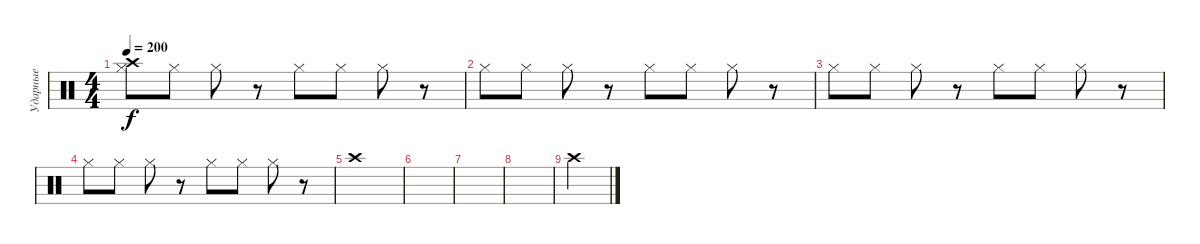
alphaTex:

\track ("Ударные" "Ударные") {instrument percussion}
\staff {score}
\articulation defaults
\ts (4 4)
\tempo 200
\clef neutral
\ks c
("Hi-Hat (closed)" "Crash high (hit)").8{dy f} "Hi-Hat (closed)".8 "Hi-Hat (closed)".8 r.8 "Hi-Hat (closed)".8 "Hi-Hat (closed)".8 "Hi-Hat (closed)".8 r.8 |
"Hi-Hat (closed)".8 "Hi-Hat (closed)".8 "Hi-Hat (closed)".8 r.8 "Hi-Hat (closed)".8 "Hi-Hat (closed)".8 "Hi-Hat (closed)".8 r.8 |
"Hi-Hat (closed)".8 "Hi-Hat (closed)".8 "Hi-Hat (closed)".8 r.8 "Hi-Hat (closed)".8 "Hi-Hat (closed)".8 "Hi-Hat (closed)".8 r.8 |
"Hi-Hat (closed)".8 "Hi-Hat (closed)".8 "Hi-Hat (closed)".8 r.8 "Hi-Hat (closed)".8 "Hi-Hat (closed)".8 "Hi-Hat (closed)".8 r.8 |
"Crash high (hit)".1 |
|
|
|
"Crash high (hit)".4
